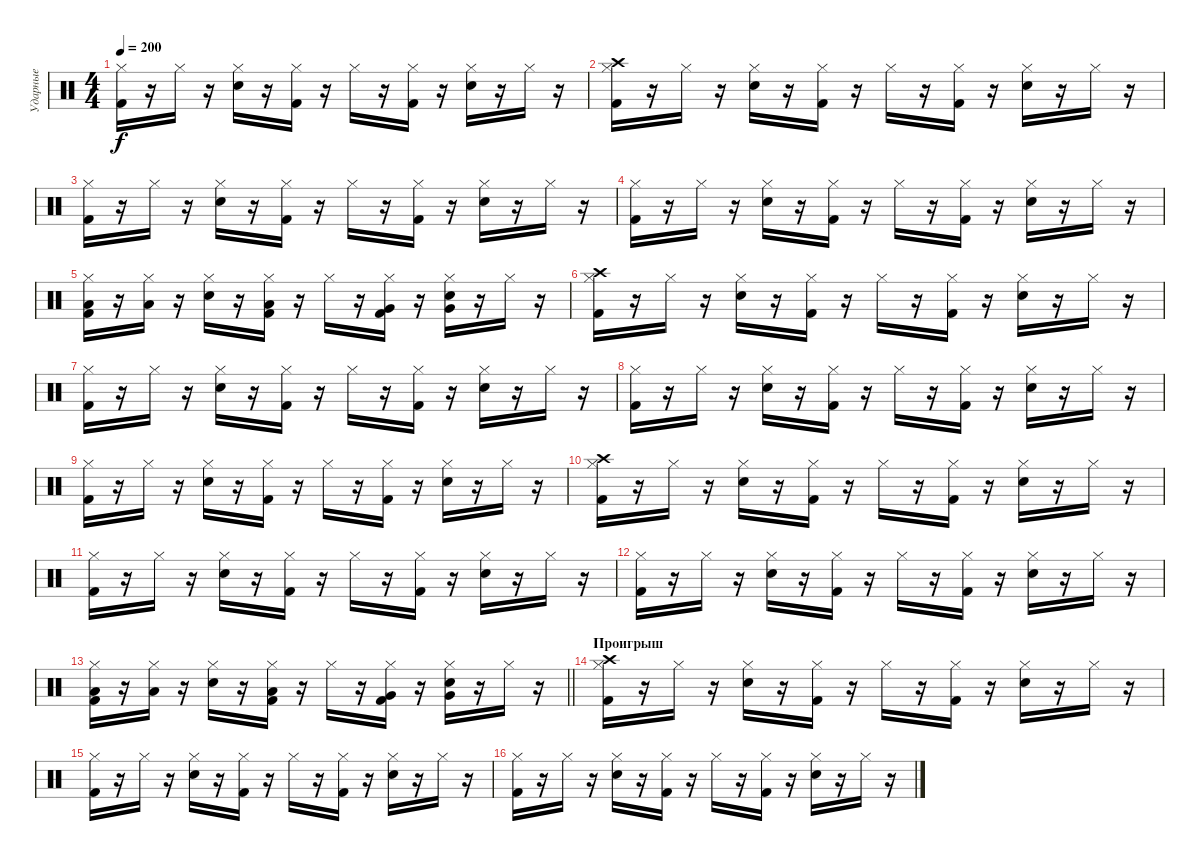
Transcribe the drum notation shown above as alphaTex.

\track ("Ударные" "Ударные") {instrument percussion}
\staff {score}
\articulation defaults
\ts (4 4)
\tempo 200
\clef neutral
\ks c
("Kick (hit) 2" "Hi-Hat (closed)").16{dy f} r.16 "Hi-Hat (closed)".16 r.16 ("Snare (hit) 2" "Hi-Hat (closed)").16 r.16 ("Kick (hit) 2" "Hi-Hat (closed)").16 r.16 "Hi-Hat (closed)".16 r.16 ("Kick (hit) 2" "Hi-Hat (closed)").16 r.16 ("Snare (hit) 2" "Hi-Hat (closed)").16 r.16 "Hi-Hat (closed)".16 r.16 |
("Kick (hit) 2" "Crash high (hit)" "Hi-Hat (closed)").16 r.16 "Hi-Hat (closed)".16 r.16 ("Snare (hit) 2" "Hi-Hat (closed)").16 r.16 ("Kick (hit) 2" "Hi-Hat (closed)").16 r.16 "Hi-Hat (closed)".16 r.16 ("Kick (hit) 2" "Hi-Hat (closed)").16 r.16 ("Snare (hit) 2" "Hi-Hat (closed)").16 r.16 "Hi-Hat (closed)".16 r.16 |
("Kick (hit) 2" "Hi-Hat (closed)").16 r.16 "Hi-Hat (closed)".16 r.16 ("Snare (hit) 2" "Hi-Hat (closed)").16 r.16 ("Kick (hit) 2" "Hi-Hat (closed)").16 r.16 "Hi-Hat (closed)".16 r.16 ("Kick (hit) 2" "Hi-Hat (closed)").16 r.16 ("Snare (hit) 2" "Hi-Hat (closed)").16 r.16 "Hi-Hat (closed)".16 r.16 |
("Kick (hit) 2" "Hi-Hat (closed)").16 r.16 "Hi-Hat (closed)".16 r.16 ("Snare (hit) 2" "Hi-Hat (closed)").16 r.16 ("Kick (hit) 2" "Hi-Hat (closed)").16 r.16 "Hi-Hat (closed)".16 r.16 ("Kick (hit) 2" "Hi-Hat (closed)").16 r.16 ("Snare (hit) 2" "Hi-Hat (closed)").16 r.16 "Hi-Hat (closed)".16 r.16 |
("Kick (hit) 2" "Low Floor Tom (hit)" "Hi-Hat (closed)").16 r.16 ("Low Floor Tom (hit)" "Hi-Hat (closed)").16 r.16 ("Snare (hit) 2" "Hi-Hat (closed)").16 r.16 ("Kick (hit) 2" "Low Floor Tom (hit)" "Hi-Hat (closed)").16 r.16 "Hi-Hat (closed)".16 r.16 ("Kick (hit) 2" "Very Low Tom (hit)" "Hi-Hat (closed)").16 r.16 ("Snare (hit) 2" "Very Low Tom (hit)" "Hi-Hat (closed)").16 r.16 "Hi-Hat (closed)".16 r.16 |
("Kick (hit) 2" "Crash high (hit)" "Hi-Hat (closed)").16 r.16 "Hi-Hat (closed)".16 r.16 ("Snare (hit) 2" "Hi-Hat (closed)").16 r.16 ("Kick (hit) 2" "Hi-Hat (closed)").16 r.16 "Hi-Hat (closed)".16 r.16 ("Kick (hit) 2" "Hi-Hat (closed)").16 r.16 ("Snare (hit) 2" "Hi-Hat (closed)").16 r.16 "Hi-Hat (closed)".16 r.16 |
("Kick (hit) 2" "Hi-Hat (closed)").16 r.16 "Hi-Hat (closed)".16 r.16 ("Snare (hit) 2" "Hi-Hat (closed)").16 r.16 ("Kick (hit) 2" "Hi-Hat (closed)").16 r.16 "Hi-Hat (closed)".16 r.16 ("Kick (hit) 2" "Hi-Hat (closed)").16 r.16 ("Snare (hit) 2" "Hi-Hat (closed)").16 r.16 "Hi-Hat (closed)".16 r.16 |
("Kick (hit) 2" "Hi-Hat (closed)").16 r.16 "Hi-Hat (closed)".16 r.16 ("Snare (hit) 2" "Hi-Hat (closed)").16 r.16 ("Kick (hit) 2" "Hi-Hat (closed)").16 r.16 "Hi-Hat (closed)".16 r.16 ("Kick (hit) 2" "Hi-Hat (closed)").16 r.16 ("Snare (hit) 2" "Hi-Hat (closed)").16 r.16 "Hi-Hat (closed)".16 r.16 |
("Kick (hit) 2" "Hi-Hat (closed)").16 r.16 "Hi-Hat (closed)".16 r.16 ("Snare (hit) 2" "Hi-Hat (closed)").16 r.16 ("Kick (hit) 2" "Hi-Hat (closed)").16 r.16 "Hi-Hat (closed)".16 r.16 ("Kick (hit) 2" "Hi-Hat (closed)").16 r.16 ("Snare (hit) 2" "Hi-Hat (closed)").16 r.16 "Hi-Hat (closed)".16 r.16 |
("Kick (hit) 2" "Crash high (hit)" "Hi-Hat (closed)").16 r.16 "Hi-Hat (closed)".16 r.16 ("Snare (hit) 2" "Hi-Hat (closed)").16 r.16 ("Kick (hit) 2" "Hi-Hat (closed)").16 r.16 "Hi-Hat (closed)".16 r.16 ("Kick (hit) 2" "Hi-Hat (closed)").16 r.16 ("Snare (hit) 2" "Hi-Hat (closed)").16 r.16 "Hi-Hat (closed)".16 r.16 |
("Kick (hit) 2" "Hi-Hat (closed)").16 r.16 "Hi-Hat (closed)".16 r.16 ("Snare (hit) 2" "Hi-Hat (closed)").16 r.16 ("Kick (hit) 2" "Hi-Hat (closed)").16 r.16 "Hi-Hat (closed)".16 r.16 ("Kick (hit) 2" "Hi-Hat (closed)").16 r.16 ("Snare (hit) 2" "Hi-Hat (closed)").16 r.16 "Hi-Hat (closed)".16 r.16 |
("Kick (hit) 2" "Hi-Hat (closed)").16 r.16 "Hi-Hat (closed)".16 r.16 ("Snare (hit) 2" "Hi-Hat (closed)").16 r.16 ("Kick (hit) 2" "Hi-Hat (closed)").16 r.16 "Hi-Hat (closed)".16 r.16 ("Kick (hit) 2" "Hi-Hat (closed)").16 r.16 ("Snare (hit) 2" "Hi-Hat (closed)").16 r.16 "Hi-Hat (closed)".16 r.16 |
\barLineRight lightlight
("Kick (hit) 2" "Low Floor Tom (hit)" "Hi-Hat (closed)").16 r.16 ("Low Floor Tom (hit)" "Hi-Hat (closed)").16 r.16 ("Snare (hit) 2" "Hi-Hat (closed)").16 r.16 ("Kick (hit) 2" "Low Floor Tom (hit)" "Hi-Hat (closed)").16 r.16 "Hi-Hat (closed)".16 r.16 ("Kick (hit) 2" "Very Low Tom (hit)" "Hi-Hat (closed)").16 r.16 ("Snare (hit) 2" "Very Low Tom (hit)" "Hi-Hat (closed)").16 r.16 "Hi-Hat (closed)".16 r.16 |
\section ("" "Проигрыш")
("Kick (hit) 2" "Crash high (hit)" "Hi-Hat (closed)").16 r.16 "Hi-Hat (closed)".16 r.16 ("Snare (hit) 2" "Hi-Hat (closed)").16 r.16 ("Kick (hit) 2" "Hi-Hat (closed)").16 r.16 "Hi-Hat (closed)".16 r.16 ("Kick (hit) 2" "Hi-Hat (closed)").16 r.16 ("Snare (hit) 2" "Hi-Hat (closed)").16 r.16 "Hi-Hat (closed)".16 r.16 |
("Kick (hit) 2" "Hi-Hat (closed)").16 r.16 "Hi-Hat (closed)".16 r.16 ("Snare (hit) 2" "Hi-Hat (closed)").16 r.16 ("Kick (hit) 2" "Hi-Hat (closed)").16 r.16 "Hi-Hat (closed)".16 r.16 ("Kick (hit) 2" "Hi-Hat (closed)").16 r.16 ("Snare (hit) 2" "Hi-Hat (closed)").16 r.16 "Hi-Hat (closed)".16 r.16 |
("Kick (hit) 2" "Hi-Hat (closed)").16 r.16 "Hi-Hat (closed)".16 r.16 ("Snare (hit) 2" "Hi-Hat (closed)").16 r.16 ("Kick (hit) 2" "Hi-Hat (closed)").16 r.16 "Hi-Hat (closed)".16 r.16 ("Kick (hit) 2" "Hi-Hat (closed)").16 r.16 ("Snare (hit) 2" "Hi-Hat (closed)").16 r.16 "Hi-Hat (closed)".16 r.16
